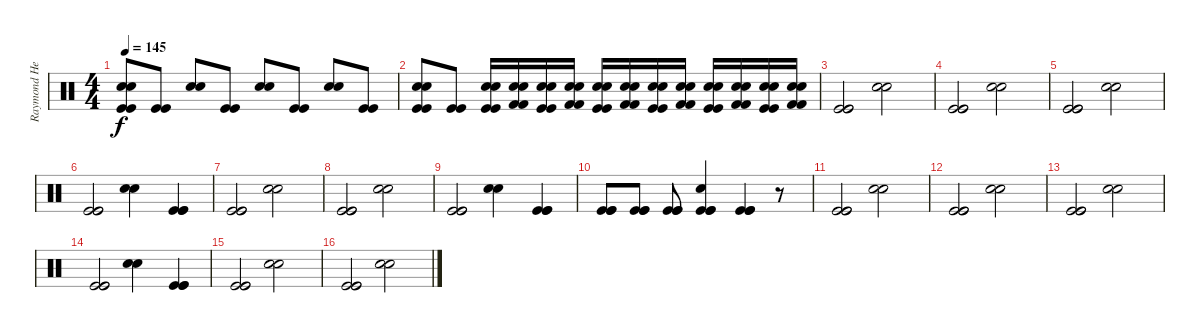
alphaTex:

\track ("Raymond Herrera" "Raymond He") {instrument percussion}
\staff {score}
\articulation defaults
\ts (4 4)
\tempo 145
\clef neutral
\ks c
("Electric Snare (hit)" "Electric Snare (hit)" "Kick (hit)" "Kick (hit)").8{dy f} ("Kick (hit)" "Kick (hit)").8 ("Electric Snare (hit)" "Electric Snare (hit)").8 ("Kick (hit)" "Kick (hit)").8 ("Electric Snare (hit)" "Electric Snare (hit)").8 ("Kick (hit)" "Kick (hit)").8 ("Electric Snare (hit)" "Electric Snare (hit)").8 ("Kick (hit)" "Kick (hit)").8 |
("Electric Snare (hit)" "Electric Snare (hit)" "Kick (hit)" "Kick (hit)").8 ("Kick (hit)" "Kick (hit)").8 ("Electric Snare (hit)" "Electric Snare (hit)" "Kick (hit)" "Kick (hit)").16 ("Electric Snare (hit)" "Electric Snare (hit)" "Kick (hit) 2" "Kick (hit) 2").16 ("Electric Snare (hit)" "Electric Snare (hit)" "Kick (hit)" "Kick (hit)").16 ("Electric Snare (hit)" "Electric Snare (hit)" "Kick (hit) 2" "Kick (hit) 2").16 ("Electric Snare (hit)" "Electric Snare (hit)" "Kick (hit)" "Kick (hit)").16 ("Electric Snare (hit)" "Electric Snare (hit)" "Kick (hit) 2" "Kick (hit) 2").16 ("Electric Snare (hit)" "Electric Snare (hit)" "Kick (hit)" "Kick (hit)").16 ("Electric Snare (hit)" "Electric Snare (hit)" "Kick (hit) 2" "Kick (hit) 2").16 ("Electric Snare (hit)" "Electric Snare (hit)" "Kick (hit)" "Kick (hit)").16 ("Electric Snare (hit)" "Electric Snare (hit)" "Kick (hit) 2" "Kick (hit) 2").16 ("Electric Snare (hit)" "Electric Snare (hit)" "Kick (hit)" "Kick (hit)").16 ("Electric Snare (hit)" "Electric Snare (hit)" "Kick (hit) 2" "Kick (hit) 2").16 |
("Kick (hit)" "Kick (hit)" "Kick (hit)").2 ("Electric Snare (hit)" "Electric Snare (hit)").2 |
("Kick (hit)" "Kick (hit)" "Kick (hit)").2 ("Electric Snare (hit)" "Electric Snare (hit)").2 |
("Kick (hit)" "Kick (hit)" "Kick (hit)").2 ("Electric Snare (hit)" "Electric Snare (hit)").2 |
("Kick (hit)" "Kick (hit)" "Kick (hit)").2 ("Electric Snare (hit)" "Electric Snare (hit)").4 ("Kick (hit)" "Kick (hit)" "Kick (hit)").4 |
("Kick (hit)" "Kick (hit)" "Kick (hit)").2 ("Electric Snare (hit)" "Electric Snare (hit)").2 |
("Kick (hit)" "Kick (hit)" "Kick (hit)").2 ("Electric Snare (hit)" "Electric Snare (hit)").2 |
("Kick (hit)" "Kick (hit)" "Kick (hit)").2 ("Electric Snare (hit)" "Electric Snare (hit)").4 ("Kick (hit)" "Kick (hit)" "Kick (hit)").4 |
("Kick (hit)" "Kick (hit)" "Kick (hit)").8 ("Kick (hit)" "Kick (hit)" "Kick (hit)").8 ("Kick (hit)" "Kick (hit)" "Kick (hit)").8 ("Electric Snare (hit)" "Kick (hit)" "Kick (hit)" "Kick (hit)").4 ("Kick (hit)" "Kick (hit)" "Kick (hit)").4 r.8 |
("Kick (hit)" "Kick (hit)" "Kick (hit)").2 ("Electric Snare (hit)" "Electric Snare (hit)").2 |
("Kick (hit)" "Kick (hit)" "Kick (hit)").2 ("Electric Snare (hit)" "Electric Snare (hit)").2 |
("Kick (hit)" "Kick (hit)" "Kick (hit)").2 ("Electric Snare (hit)" "Electric Snare (hit)").2 |
("Kick (hit)" "Kick (hit)" "Kick (hit)").2 ("Electric Snare (hit)" "Electric Snare (hit)").4 ("Kick (hit)" "Kick (hit)" "Kick (hit)").4 |
("Kick (hit)" "Kick (hit)" "Kick (hit)").2 ("Electric Snare (hit)" "Electric Snare (hit)").2 |
("Kick (hit)" "Kick (hit)" "Kick (hit)").2 ("Electric Snare (hit)" "Electric Snare (hit)").2
